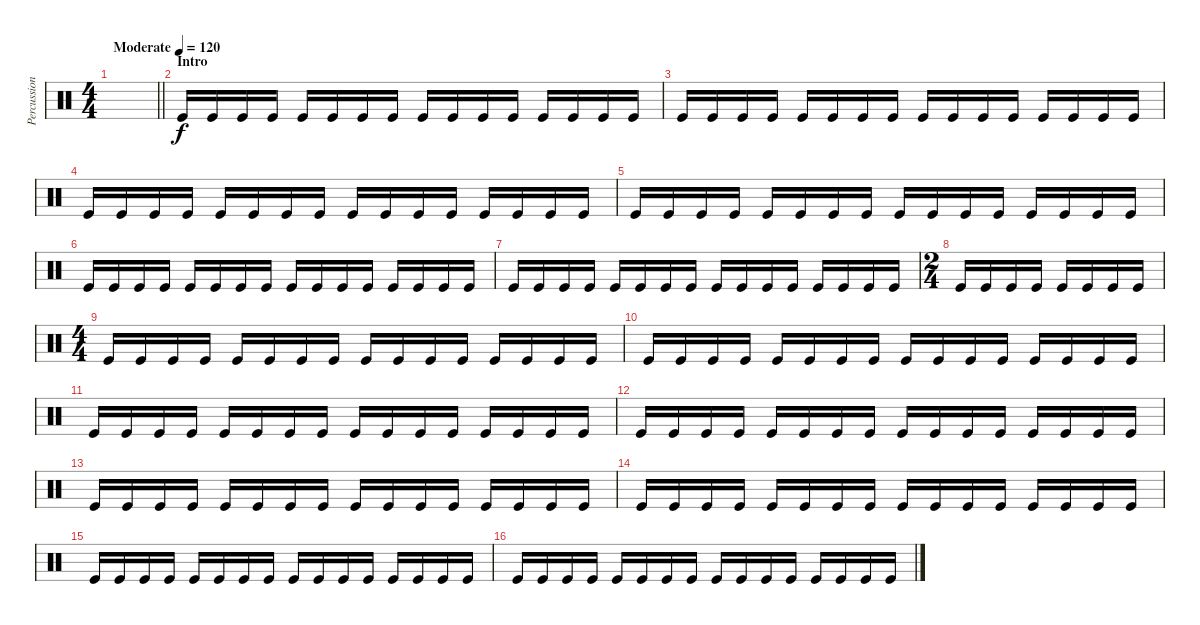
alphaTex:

\track ("Percussion" "Percussion") {instrument percussion}
\staff {score}
\articulation defaults
\ts (4 4)
\tempo (120 "Moderate")
\clef neutral
\barLineRight lightlight
\ks c
|
\section ("" "Intro")
"Kick (hit)".16 "Kick (hit)".16 "Kick (hit)".16 "Kick (hit)".16 "Kick (hit)".16 "Kick (hit)".16 "Kick (hit)".16 "Kick (hit)".16 "Kick (hit)".16 "Kick (hit)".16 "Kick (hit)".16 "Kick (hit)".16 "Kick (hit)".16 "Kick (hit)".16 "Kick (hit)".16 "Kick (hit)".16 |
"Kick (hit)".16 "Kick (hit)".16 "Kick (hit)".16 "Kick (hit)".16 "Kick (hit)".16 "Kick (hit)".16 "Kick (hit)".16 "Kick (hit)".16 "Kick (hit)".16 "Kick (hit)".16 "Kick (hit)".16 "Kick (hit)".16 "Kick (hit)".16 "Kick (hit)".16 "Kick (hit)".16 "Kick (hit)".16 |
"Kick (hit)".16 "Kick (hit)".16 "Kick (hit)".16 "Kick (hit)".16 "Kick (hit)".16 "Kick (hit)".16 "Kick (hit)".16 "Kick (hit)".16 "Kick (hit)".16 "Kick (hit)".16 "Kick (hit)".16 "Kick (hit)".16 "Kick (hit)".16 "Kick (hit)".16 "Kick (hit)".16 "Kick (hit)".16 |
"Kick (hit)".16 "Kick (hit)".16 "Kick (hit)".16 "Kick (hit)".16 "Kick (hit)".16 "Kick (hit)".16 "Kick (hit)".16 "Kick (hit)".16 "Kick (hit)".16 "Kick (hit)".16 "Kick (hit)".16 "Kick (hit)".16 "Kick (hit)".16 "Kick (hit)".16 "Kick (hit)".16 "Kick (hit)".16 |
"Kick (hit)".16 "Kick (hit)".16 "Kick (hit)".16 "Kick (hit)".16 "Kick (hit)".16 "Kick (hit)".16 "Kick (hit)".16 "Kick (hit)".16 "Kick (hit)".16 "Kick (hit)".16 "Kick (hit)".16 "Kick (hit)".16 "Kick (hit)".16 "Kick (hit)".16 "Kick (hit)".16 "Kick (hit)".16 |
"Kick (hit)".16 "Kick (hit)".16 "Kick (hit)".16 "Kick (hit)".16 "Kick (hit)".16 "Kick (hit)".16 "Kick (hit)".16 "Kick (hit)".16 "Kick (hit)".16 "Kick (hit)".16 "Kick (hit)".16 "Kick (hit)".16 "Kick (hit)".16 "Kick (hit)".16 "Kick (hit)".16 "Kick (hit)".16 |
\ts (2 4)
"Kick (hit)".16 "Kick (hit)".16 "Kick (hit)".16 "Kick (hit)".16 "Kick (hit)".16 "Kick (hit)".16 "Kick (hit)".16 "Kick (hit)".16 |
\ts (4 4)
"Kick (hit)".16 "Kick (hit)".16 "Kick (hit)".16 "Kick (hit)".16 "Kick (hit)".16 "Kick (hit)".16 "Kick (hit)".16 "Kick (hit)".16 "Kick (hit)".16 "Kick (hit)".16 "Kick (hit)".16 "Kick (hit)".16 "Kick (hit)".16 "Kick (hit)".16 "Kick (hit)".16 "Kick (hit)".16 |
"Kick (hit)".16 "Kick (hit)".16 "Kick (hit)".16 "Kick (hit)".16 "Kick (hit)".16 "Kick (hit)".16 "Kick (hit)".16 "Kick (hit)".16 "Kick (hit)".16 "Kick (hit)".16 "Kick (hit)".16 "Kick (hit)".16 "Kick (hit)".16 "Kick (hit)".16 "Kick (hit)".16 "Kick (hit)".16 |
"Kick (hit)".16 "Kick (hit)".16 "Kick (hit)".16 "Kick (hit)".16 "Kick (hit)".16 "Kick (hit)".16 "Kick (hit)".16 "Kick (hit)".16 "Kick (hit)".16 "Kick (hit)".16 "Kick (hit)".16 "Kick (hit)".16 "Kick (hit)".16 "Kick (hit)".16 "Kick (hit)".16 "Kick (hit)".16 |
"Kick (hit)".16 "Kick (hit)".16 "Kick (hit)".16 "Kick (hit)".16 "Kick (hit)".16 "Kick (hit)".16 "Kick (hit)".16 "Kick (hit)".16 "Kick (hit)".16 "Kick (hit)".16 "Kick (hit)".16 "Kick (hit)".16 "Kick (hit)".16 "Kick (hit)".16 "Kick (hit)".16 "Kick (hit)".16 |
"Kick (hit)".16 "Kick (hit)".16 "Kick (hit)".16 "Kick (hit)".16 "Kick (hit)".16 "Kick (hit)".16 "Kick (hit)".16 "Kick (hit)".16 "Kick (hit)".16 "Kick (hit)".16 "Kick (hit)".16 "Kick (hit)".16 "Kick (hit)".16 "Kick (hit)".16 "Kick (hit)".16 "Kick (hit)".16 |
"Kick (hit)".16 "Kick (hit)".16 "Kick (hit)".16 "Kick (hit)".16 "Kick (hit)".16 "Kick (hit)".16 "Kick (hit)".16 "Kick (hit)".16 "Kick (hit)".16 "Kick (hit)".16 "Kick (hit)".16 "Kick (hit)".16 "Kick (hit)".16 "Kick (hit)".16 "Kick (hit)".16 "Kick (hit)".16 |
"Kick (hit)".16 "Kick (hit)".16 "Kick (hit)".16 "Kick (hit)".16 "Kick (hit)".16 "Kick (hit)".16 "Kick (hit)".16 "Kick (hit)".16 "Kick (hit)".16 "Kick (hit)".16 "Kick (hit)".16 "Kick (hit)".16 "Kick (hit)".16 "Kick (hit)".16 "Kick (hit)".16 "Kick (hit)".16 |
"Kick (hit)".16 "Kick (hit)".16 "Kick (hit)".16 "Kick (hit)".16 "Kick (hit)".16 "Kick (hit)".16 "Kick (hit)".16 "Kick (hit)".16 "Kick (hit)".16 "Kick (hit)".16 "Kick (hit)".16 "Kick (hit)".16 "Kick (hit)".16 "Kick (hit)".16 "Kick (hit)".16 "Kick (hit)".16
